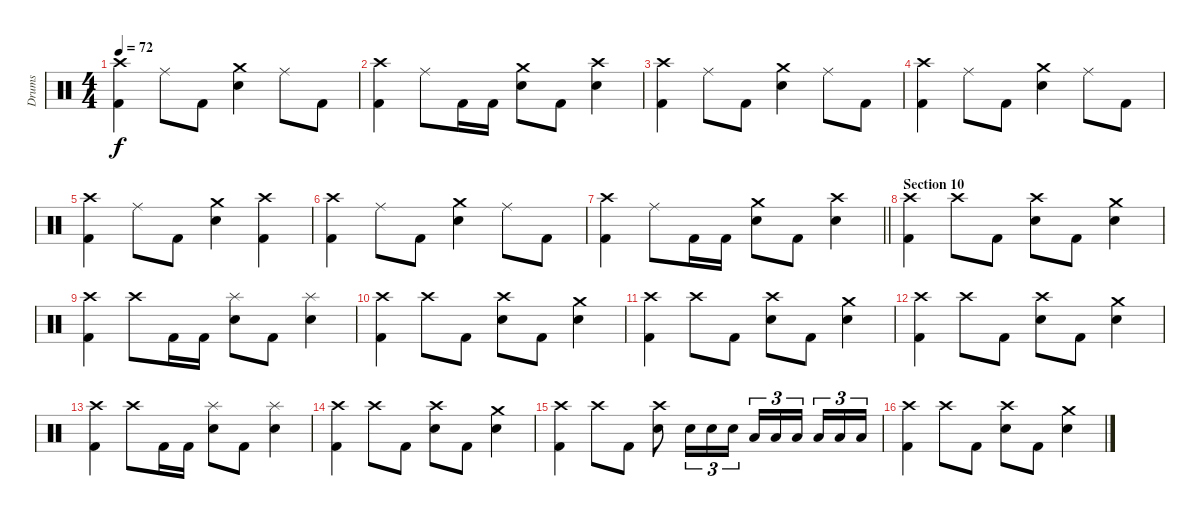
\track ("Drums" "Drums") {instrument percussion}
\staff {score}
\articulation defaults
\ts (4 4)
\tempo 72
\clef neutral
\ks c
("Crash high (hit)" "Kick (hit) 2").4{dy f} "Ride (middle)".8 "Kick (hit) 2".8 ("Crash medium (hit)" "Electric Snare (hit)").4 "Ride (middle)".8 "Kick (hit) 2".8 |
("Crash high (hit)" "Kick (hit) 2").4 "Ride (middle)".8 "Kick (hit) 2".16 "Kick (hit) 2".16 ("Crash medium (hit)" "Electric Snare (hit)").8 "Kick (hit) 2".8 ("Crash high (hit)" "Electric Snare (hit)").4 |
("Crash high (hit)" "Kick (hit) 2").4 "Ride (middle)".8 "Kick (hit) 2".8 ("Crash medium (hit)" "Electric Snare (hit)").4 "Ride (middle)".8 "Kick (hit) 2".8 |
("Crash high (hit)" "Kick (hit) 2").4 "Ride (middle)".8 "Kick (hit) 2".8 ("Crash medium (hit)" "Electric Snare (hit)").4 "Ride (middle)".8 "Kick (hit) 2".8 |
("Crash high (hit)" "Kick (hit) 2").4 "Ride (middle)".8 "Kick (hit) 2".8 ("Crash medium (hit)" "Electric Snare (hit)").4 ("Crash high (hit)" "Kick (hit) 2").4 |
("Crash high (hit)" "Kick (hit) 2").4 "Ride (middle)".8 "Kick (hit) 2".8 ("Crash medium (hit)" "Electric Snare (hit)").4 "Ride (middle)".8 "Kick (hit) 2".8 |
\barLineRight lightlight
("Crash high (hit)" "Kick (hit) 2").4 "Ride (middle)".8 "Kick (hit) 2".16 "Kick (hit) 2".16 ("Crash medium (hit)" "Electric Snare (hit)").8 "Kick (hit) 2".8 ("Crash high (hit)" "Electric Snare (hit)").4 |
\section ("" "Section 10")
("Crash high (hit)" "Kick (hit) 2").4 "Crash high (hit)".8 "Kick (hit) 2".8 ("Crash high (hit)" "Electric Snare (hit)").8 "Kick (hit) 2".8 ("Crash medium (hit)" "Electric Snare (hit)").4 |
("Crash high (hit)" "Kick (hit) 2").4 "Crash high (hit)".8 "Kick (hit) 2".16 "Kick (hit) 2".16 ("Splash (hit)" "Electric Snare (hit)").8 "Kick (hit) 2".8 ("Splash (hit)" "Electric Snare (hit)").4 |
("Crash high (hit)" "Kick (hit) 2").4 "Crash high (hit)".8 "Kick (hit) 2".8 ("Crash high (hit)" "Electric Snare (hit)").8 "Kick (hit) 2".8 ("Crash medium (hit)" "Electric Snare (hit)").4 |
("Crash high (hit)" "Kick (hit) 2").4 "Crash high (hit)".8 "Kick (hit) 2".8 ("Crash high (hit)" "Electric Snare (hit)").8 "Kick (hit) 2".8 ("Crash medium (hit)" "Electric Snare (hit)").4 |
("Crash high (hit)" "Kick (hit) 2").4 "Crash high (hit)".8 "Kick (hit) 2".8 ("Crash high (hit)" "Electric Snare (hit)").8 "Kick (hit) 2".8 ("Crash medium (hit)" "Electric Snare (hit)").4 |
("Crash high (hit)" "Kick (hit) 2").4 "Crash high (hit)".8 "Kick (hit) 2".16 "Kick (hit) 2".16 ("Splash (hit)" "Electric Snare (hit)").8 "Kick (hit) 2".8 ("Splash (hit)" "Electric Snare (hit)").4 |
("Crash high (hit)" "Kick (hit) 2").4 "Crash high (hit)".8 "Kick (hit) 2".8 ("Crash high (hit)" "Electric Snare (hit)").8 "Kick (hit) 2".8 ("Crash medium (hit)" "Electric Snare (hit)").4 |
("Crash high (hit)" "Kick (hit) 2").4 "Crash high (hit)".8 "Kick (hit) 2".8 ("Crash high (hit)" "Electric Snare (hit)").8 "Electric Snare (hit)".16{tu (3 2)} "Electric Snare (hit)".16{tu (3 2)} "Electric Snare (hit)".16{tu (3 2)} "Low Tom (hit)".16{tu (3 2)} "Low Tom (hit)".16{tu (3 2)} "Low Tom (hit)".16{tu (3 2) beam splitsecondary} "Low Floor Tom (hit)".16{tu (3 2)} "Low Floor Tom (hit)".16{tu (3 2)} "Low Floor Tom (hit)".16{tu (3 2)} |
("Crash high (hit)" "Kick (hit) 2").4 "Crash high (hit)".8 "Kick (hit) 2".8 ("Crash high (hit)" "Electric Snare (hit)").8 "Kick (hit) 2".8 ("Crash medium (hit)" "Electric Snare (hit)").4
